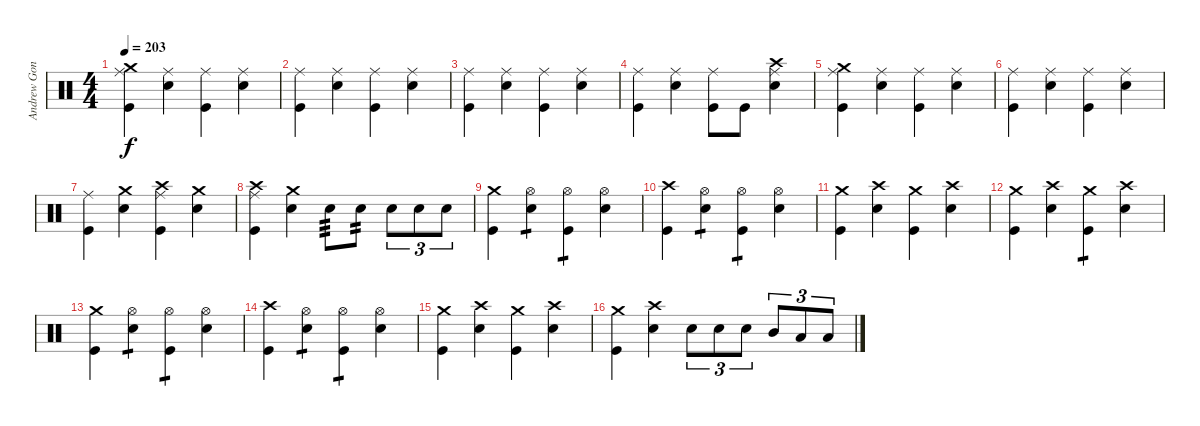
\track ("Andrew Gonzales" "Andrew Gon") {instrument percussion}
\staff {score}
\articulation defaults
\ts (4 4)
\tempo 203
\clef neutral
\ks c
("Crash medium (hit)" "Ride (middle)" "Kick (hit)").4{dy f} ("Ride (middle)" "Electric Snare (hit)").4 ("Ride (middle)" "Kick (hit)").4 ("Ride (middle)" "Electric Snare (hit)").4 |
("Ride (middle)" "Kick (hit)").4 ("Ride (middle)" "Electric Snare (hit)").4 ("Ride (middle)" "Kick (hit)").4 ("Ride (middle)" "Electric Snare (hit)").4 |
("Ride (middle)" "Kick (hit)").4 ("Ride (middle)" "Electric Snare (hit)").4 ("Ride (middle)" "Kick (hit)").4 ("Ride (middle)" "Electric Snare (hit)").4 |
("Ride (middle)" "Kick (hit)").4 ("Ride (middle)" "Electric Snare (hit)").4 ("Ride (middle)" "Kick (hit)").8 "Kick (hit)".8 ("Crash high (hit)" "Ride (middle)" "Electric Snare (hit)").4 |
("Crash medium (hit)" "Ride (middle)" "Kick (hit)").4 ("Ride (middle)" "Electric Snare (hit)").4 ("Ride (middle)" "Kick (hit)").4 ("Ride (middle)" "Electric Snare (hit)").4 |
("Ride (middle)" "Kick (hit)").4 ("Ride (middle)" "Electric Snare (hit)").4 ("Ride (middle)" "Kick (hit)").4 ("Ride (middle)" "Electric Snare (hit)").4 |
("Ride (middle)" "Kick (hit)").4 ("Crash medium (hit)" "Electric Snare (hit)").4 ("Crash high (hit)" "Ride (middle)" "Kick (hit)").4 ("Crash medium (hit)" "Electric Snare (hit)").4 |
("Crash high (hit)" "Ride (middle)" "Kick (hit)").4 ("Crash medium (hit)" "Electric Snare (hit)").4 "Electric Snare (hit)".8{tp 3} "Electric Snare (hit)".8{tp 2} "Electric Snare (hit)".8{tu (3 2)} "Electric Snare (hit)".8{tu (3 2)} "Electric Snare (hit)".8{tu (3 2)} |
("Crash medium (hit)" "Kick (hit)").4 ("Hi-Hat (open)" "Electric Snare (hit)").4{tp 1} ("Hi-Hat (open)" "Kick (hit)").4{tp 1} ("Hi-Hat (open)" "Electric Snare (hit)").4 |
("Crash high (hit)" "Kick (hit)").4 ("Hi-Hat (open)" "Electric Snare (hit)").4{tp 1} ("Hi-Hat (open)" "Kick (hit)").4{tp 1} ("Hi-Hat (open)" "Electric Snare (hit)").4 |
("Crash medium (hit)" "Kick (hit)").4 ("Crash high (hit)" "Electric Snare (hit)").4 ("Crash medium (hit)" "Kick (hit)").4 ("Crash high (hit)" "Electric Snare (hit)").4 |
("Crash medium (hit)" "Kick (hit)").4 ("Crash high (hit)" "Electric Snare (hit)").4 ("Crash medium (hit)" "Kick (hit)").4{tp 1} ("Crash high (hit)" "Electric Snare (hit)").4 |
("Crash medium (hit)" "Kick (hit)").4 ("Hi-Hat (open)" "Electric Snare (hit)").4{tp 1} ("Hi-Hat (open)" "Kick (hit)").4{tp 1} ("Hi-Hat (open)" "Electric Snare (hit)").4 |
("Crash high (hit)" "Kick (hit)").4 ("Hi-Hat (open)" "Electric Snare (hit)").4{tp 1} ("Hi-Hat (open)" "Kick (hit)").4{tp 1} ("Hi-Hat (open)" "Electric Snare (hit)").4 |
("Crash medium (hit)" "Kick (hit)").4 ("Crash high (hit)" "Electric Snare (hit)").4 ("Crash medium (hit)" "Kick (hit)").4 ("Crash high (hit)" "Electric Snare (hit)").4 |
("Crash medium (hit)" "Kick (hit)").4 ("Crash high (hit)" "Electric Snare (hit)").4 "Electric Snare (hit)".8{tu (3 2)} "Electric Snare (hit)".8{tu (3 2)} "Electric Snare (hit)".8{tu (3 2)} "Mid Tom (hit)".8{tu (3 2)} "Low Tom (hit)".8{tu (3 2)} "Low Floor Tom (hit)".8{tu (3 2)}
